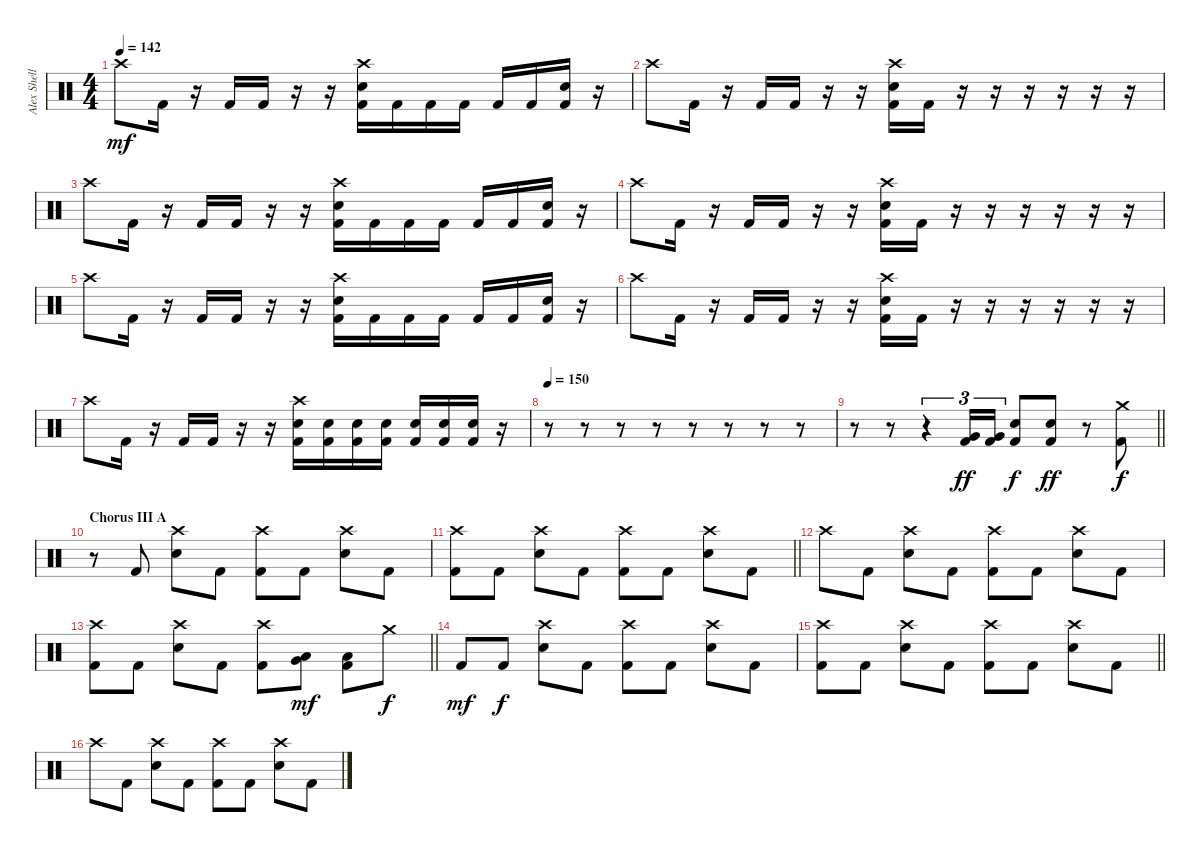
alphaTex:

\track ("Alex Shellnutt" "Alex Shell") {instrument percussion}
\staff {score}
\articulation defaults
\ts (4 4)
\tempo 142
\clef neutral
\ks c "Crash high (hit)".8{dy mf} "Kick (hit) 2".16
r.16 "Kick (hit) 2".16 "Kick (hit) 2".16 r.16 r.16 ("Crash high (hit)" "Snare (hit) 2" "Kick (hit) 2").16 "Kick (hit) 2".16 "Kick (hit) 2".16 "Kick (hit) 2".16 "Kick (hit) 2".16 "Kick (hit) 2".16 ("Snare (hit) 2" "Kick (hit) 2").16 r.16 |
"Crash high (hit)".8 "Kick (hit) 2".16 r.16 "Kick (hit) 2".16 "Kick (hit) 2".16 r.16 r.16 ("Crash high (hit)" "Snare (hit) 2" "Kick (hit) 2").16 "Kick (hit) 2".16 r.16 r.16 r.16 r.16 r.16 r.16 |
"Crash high (hit)".8 "Kick (hit) 2".16 r.16 "Kick (hit) 2".16 "Kick (hit) 2".16 r.16 r.16 ("Crash high (hit)" "Snare (hit) 2" "Kick (hit) 2").16 "Kick (hit) 2".16 "Kick (hit) 2".16 "Kick (hit) 2".16 "Kick (hit) 2".16 "Kick (hit) 2".16 ("Snare (hit) 2" "Kick (hit) 2").16 r.16 |
"Crash high (hit)".8 "Kick (hit) 2".16 r.16 "Kick (hit) 2".16 "Kick (hit) 2".16 r.16 r.16 ("Crash high (hit)" "Snare (hit) 2" "Kick (hit) 2").16 "Kick (hit) 2".16 r.16 r.16 r.16 r.16 r.16 r.16 |
"Crash high (hit)".8 "Kick (hit) 2".16 r.16 "Kick (hit) 2".16 "Kick (hit) 2".16 r.16 r.16 ("Crash high (hit)" "Snare (hit) 2" "Kick (hit) 2").16 "Kick (hit) 2".16 "Kick (hit) 2".16 "Kick (hit) 2".16 "Kick (hit) 2".16 "Kick (hit) 2".16 ("Snare (hit) 2" "Kick (hit) 2").16 r.16 |
"Crash high (hit)".8 "Kick (hit) 2".16 r.16 "Kick (hit) 2".16 "Kick (hit) 2".16 r.16 r.16 ("Crash high (hit)" "Snare (hit) 2" "Kick (hit) 2").16 "Kick (hit) 2".16 r.16 r.16 r.16 r.16 r.16 r.16 |
"Crash high (hit)".8 "Kick (hit) 2".16 r.16 "Kick (hit) 2".16 "Kick (hit) 2".16 r.16 r.16 ("Crash high (hit)" "Snare (hit) 2" "Kick (hit) 2").16 ("Snare (hit) 2" "Kick (hit) 2").16 ("Snare (hit) 2" "Kick (hit) 2").16 ("Snare (hit) 2" "Kick (hit) 2").16 ("Snare (hit) 2" "Kick (hit) 2").16 ("Snare (hit) 2" "Kick (hit) 2").16 ("Snare (hit) 2" "Kick (hit) 2").16 r.16 |
\tempo 150
r.8 r.8 r.8 r.8 r.8 r.8 r.8 r.8 |
\barLineRight lightlight
r.8 r.8 r.4{tu (3 2)} ("Very Low Tom (hit)" "Kick (hit) 2").16{tu (3 2) dy ff} ("Very Low Tom (hit)" "Kick (hit) 2").16{tu (3 2)} ("Snare (hit) 2" "Kick (hit) 2").8{dy f} ("Snare (hit) 2" "Kick (hit) 2").8{dy ff} r.8 ("Crash medium (hit)" "Kick (hit) 2").8{dy f} |
\section ("" "Chorus III A")
r.8 "Kick (hit) 2".8 ("Crash high (hit)" "Snare (hit) 2").8 "Kick (hit) 2".8 ("Crash high (hit)" "Kick (hit) 2").8 "Kick (hit) 2".8 ("Crash high (hit)" "Snare (hit) 2").8 "Kick (hit) 2".8 |
\barLineRight lightlight
("Crash high (hit)" "Kick (hit) 2").8 "Kick (hit) 2".8 ("Crash high (hit)" "Snare (hit) 2").8 "Kick (hit) 2".8 ("Crash high (hit)" "Kick (hit) 2").8 "Kick (hit) 2".8 ("Crash high (hit)" "Snare (hit) 2").8 "Kick (hit) 2".8 |
"Crash high (hit)".8 "Kick (hit) 2".8 ("Crash high (hit)" "Snare (hit) 2").8 "Kick (hit) 2".8 ("Crash high (hit)" "Kick (hit) 2").8 "Kick (hit) 2".8 ("Crash high (hit)" "Snare (hit) 2").8 "Kick (hit) 2".8 |
\barLineRight lightlight
("Crash high (hit)" "Kick (hit) 2").8 "Kick (hit) 2".8 ("Crash high (hit)" "Snare (hit) 2").8 "Kick (hit) 2".8 ("Crash high (hit)" "Kick (hit) 2").8 ("Very Low Tom (hit)" "Low Floor Tom (hit)").8{dy mf} ("Low Floor Tom (hit)" "Kick (hit) 2").8 "Crash medium (hit)".8{dy f} |
"Kick (hit) 2".8{dy mf} "Kick (hit) 2".8{dy f} ("Crash high (hit)" "Snare (hit) 2").8 "Kick (hit) 2".8 ("Crash high (hit)" "Kick (hit) 2").8 "Kick (hit) 2".8 ("Crash high (hit)" "Snare (hit) 2").8 "Kick (hit) 2".8 |
\barLineRight lightlight
("Crash high (hit)" "Kick (hit) 2").8 "Kick (hit) 2".8 ("Crash high (hit)" "Snare (hit) 2").8 "Kick (hit) 2".8 ("Crash high (hit)" "Kick (hit) 2").8 "Kick (hit) 2".8 ("Crash high (hit)" "Snare (hit) 2").8 "Kick (hit) 2".8 |
"Crash high (hit)".8 "Kick (hit) 2".8 ("Crash high (hit)" "Snare (hit) 2").8 "Kick (hit) 2".8 ("Crash high (hit)" "Kick (hit) 2").8 "Kick (hit) 2".8 ("Crash high (hit)" "Snare (hit) 2").8 "Kick (hit) 2".8
